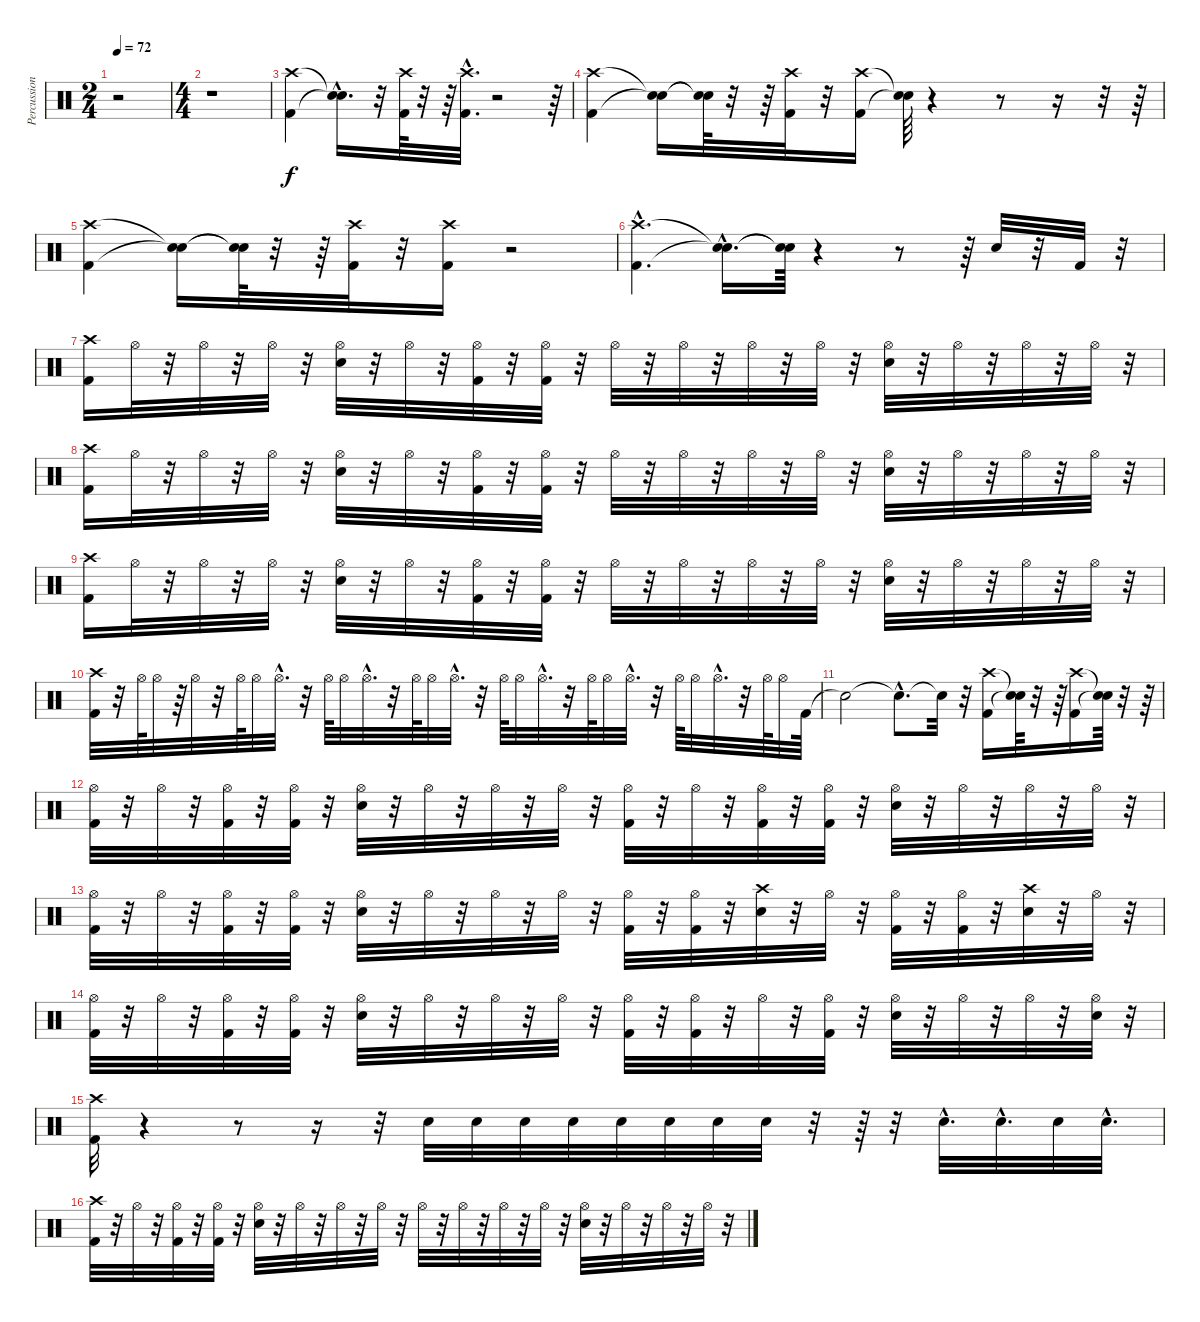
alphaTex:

\track ("Percussions" "Percussion") {instrument percussion}
\staff {score}
\articulation defaults
\ts (2 4)
\tempo 72
\clef neutral
\ks c
r.2{dy f} |
\ts (4 4)
r.1 |
("Crash high (hit)" "Kick (hit) 2").4 ("Snare (hit)"{hac t} "Snare (hit)"{hac t}).16{d} r.32 ("Crash high (hit)" "Kick (hit) 2").64 r.32 r.64 ("Crash high (hit)"{hac} "Kick (hit) 2"{hac}).32{d} r.2 r.64 |
("Crash high (hit)" "Kick (hit) 2").4 ("Snare (hit)"{t} "Snare (hit)"{t}).16 ("Snare (hit)"{t} "Snare (hit)"{t}).64 r.32 r.64 ("Crash high (hit)" "Kick (hit) 2").32 r.32 ("Crash high (hit)" "Kick (hit) 2").16 ("Snare (hit)"{t} "Snare (hit)"{t}).64 r.4 r.8 r.16 r.32 r.64 |
("Crash high (hit)" "Kick (hit) 2").4 ("Snare (hit)"{t} "Snare (hit)"{t}).16 ("Snare (hit)"{t} "Snare (hit)"{t}).64 r.32 r.64 ("Crash high (hit)" "Kick (hit) 2").32 r.32 ("Crash high (hit)" "Kick (hit) 2").16 r.2 |
("Crash high (hit)"{hac} "Kick (hit) 2"{hac}).4{d} ("Snare (hit)"{hac t} "Snare (hit)"{hac t}).16{d} ("Snare (hit)"{t} "Snare (hit)"{t}).64 r.4 r.8 r.64 "Snare (hit) 2".32 r.32 "Kick (hit) 2".32 r.32 |
("Crash high (hit)" "Kick (hit) 2").16 "Hi-Hat (open)".32 r.32 "Hi-Hat (open)".32 r.32 "Hi-Hat (open)".32 r.32 ("Hi-Hat (open)" "Snare (hit) 2").32 r.32 "Hi-Hat (open)".32 r.32 ("Hi-Hat (open)" "Kick (hit) 2").32 r.32 ("Hi-Hat (open)" "Kick (hit) 2").32 r.32 "Hi-Hat (open)".32 r.32 "Hi-Hat (open)".32 r.32 "Hi-Hat (open)".32 r.32 "Hi-Hat (open)".32 r.32 ("Hi-Hat (open)" "Snare (hit) 2").32 r.32 "Hi-Hat (open)".32 r.32 "Hi-Hat (open)".32 r.32 "Hi-Hat (open)".32 r.32 |
("Crash high (hit)" "Kick (hit) 2").16 "Hi-Hat (open)".32 r.32 "Hi-Hat (open)".32 r.32 "Hi-Hat (open)".32 r.32 ("Hi-Hat (open)" "Snare (hit) 2").32 r.32 "Hi-Hat (open)".32 r.32 ("Hi-Hat (open)" "Kick (hit) 2").32 r.32 ("Hi-Hat (open)" "Kick (hit) 2").32 r.32 "Hi-Hat (open)".32 r.32 "Hi-Hat (open)".32 r.32 "Hi-Hat (open)".32 r.32 "Hi-Hat (open)".32 r.32 ("Hi-Hat (open)" "Snare (hit) 2").32 r.32 "Hi-Hat (open)".32 r.32 "Hi-Hat (open)".32 r.32 "Hi-Hat (open)".32 r.32 |
("Crash high (hit)" "Kick (hit) 2").16 "Hi-Hat (open)".32 r.32 "Hi-Hat (open)".32 r.32 "Hi-Hat (open)".32 r.32 ("Hi-Hat (open)" "Snare (hit) 2").32 r.32 "Hi-Hat (open)".32 r.32 ("Hi-Hat (open)" "Kick (hit) 2").32 r.32 ("Hi-Hat (open)" "Kick (hit) 2").32 r.32 "Hi-Hat (open)".32 r.32 "Hi-Hat (open)".32 r.32 "Hi-Hat (open)".32 r.32 "Hi-Hat (open)".32 r.32 ("Hi-Hat (open)" "Snare (hit) 2").32 r.32 "Hi-Hat (open)".32 r.32 "Hi-Hat (open)".32 r.32 "Hi-Hat (open)".32 r.32 |
("Crash high (hit)" "Kick (hit) 2").32 r.32 "Hi-Hat (open)".64 "Hi-Hat (open)".32 r.64 "Hi-Hat (open)".32 r.32 "Hi-Hat (open)".64 "Hi-Hat (open)".32 "Hi-Hat (open)"{hac}.32{d} r.32 "Hi-Hat (open)".64 "Hi-Hat (open)".32 "Hi-Hat (open)"{hac}.32{d} r.32 "Hi-Hat (open)".64 "Hi-Hat (open)".32 "Hi-Hat (open)"{hac}.32{d} r.32 "Hi-Hat (open)".64 "Hi-Hat (open)".32 "Hi-Hat (open)"{hac}.32{d} r.32 "Hi-Hat (open)".64 "Hi-Hat (open)".32 "Hi-Hat (open)"{hac}.32{d} r.32 "Hi-Hat (open)".64 "Hi-Hat (open)".32 "Hi-Hat (open)"{hac}.32{d} r.32 "Hi-Hat (open)".64 "Hi-Hat (open)".32 "Kick (hit) 2".64 |
"Snare (hit)"{t}.2 "Snare (hit)"{hac t}.8{d} "Snare (hit)"{t}.32 r.32 ("Crash high (hit)" "Kick (hit) 2").16 ("Snare (hit)"{t} "Snare (hit)"{t}).64 r.32 r.64 ("Crash high (hit)" "Kick (hit) 2").16 ("Snare (hit)"{t} "Snare (hit)"{t}).64 r.32 r.64 |
("Hi-Hat (open)" "Kick (hit) 2").32 r.32 "Hi-Hat (open)".32 r.32 ("Hi-Hat (open)" "Kick (hit) 2").32 r.32 ("Hi-Hat (open)" "Kick (hit) 2").32 r.32 ("Hi-Hat (open)" "Snare (hit) 2").32 r.32 "Hi-Hat (open)".32 r.32 "Hi-Hat (open)".32 r.32 "Hi-Hat (open)".32 r.32 ("Hi-Hat (open)" "Kick (hit) 2").32 r.32 "Hi-Hat (open)".32 r.32 ("Hi-Hat (open)" "Kick (hit) 2").32 r.32 ("Hi-Hat (open)" "Kick (hit) 2").32 r.32 ("Hi-Hat (open)" "Snare (hit) 2").32 r.32 "Hi-Hat (open)".32 r.32 "Hi-Hat (open)".32 r.32 "Hi-Hat (open)".32 r.32 |
("Hi-Hat (open)" "Kick (hit) 2").32 r.32 "Hi-Hat (open)".32 r.32 ("Hi-Hat (open)" "Kick (hit) 2").32 r.32 ("Hi-Hat (open)" "Kick (hit) 2").32 r.32 ("Snare (hit) 2" "Hi-Hat (open)").32 r.32 "Hi-Hat (open)".32 r.32 "Hi-Hat (open)".32 r.32 "Hi-Hat (open)".32 r.32 ("Hi-Hat (open)" "Kick (hit) 2").32 r.32 ("Hi-Hat (open)" "Kick (hit) 2").32 r.32 ("Crash high (hit)" "Snare (hit) 2").32 r.32 "Hi-Hat (open)".32 r.32 ("Hi-Hat (open)" "Kick (hit) 2").32 r.32 ("Hi-Hat (open)" "Kick (hit) 2").32 r.32 ("Crash high (hit)" "Snare (hit) 2").32 r.32 "Hi-Hat (open)".32 r.32 |
("Hi-Hat (open)" "Kick (hit) 2").32 r.32 "Hi-Hat (open)".32 r.32 ("Hi-Hat (open)" "Kick (hit) 2").32 r.32 ("Hi-Hat (open)" "Kick (hit) 2").32 r.32 ("Snare (hit) 2" "Hi-Hat (open)").32 r.32 "Hi-Hat (open)".32 r.32 "Hi-Hat (open)".32 r.32 "Hi-Hat (open)".32 r.32 ("Hi-Hat (open)" "Kick (hit) 2").32 r.32 ("Hi-Hat (open)" "Kick (hit) 2").32 r.32 "Hi-Hat (open)".32 r.32 ("Hi-Hat (open)" "Kick (hit) 2").32 r.32 ("Hi-Hat (open)" "Snare (hit) 2").32 r.32 "Hi-Hat (open)".32 r.32 "Hi-Hat (open)".32 r.32 ("Hi-Hat (open)" "Snare (hit) 2").32 r.32 |
("Crash high (hit)" "Kick (hit) 2").32 r.4 r.8 r.16 r.32 "Snare (hit) 2".32 "Snare (hit) 2".32 "Snare (hit) 2".32 "Snare (hit) 2".32 "Snare (hit) 2".32 "Snare (hit) 2".32 "Snare (hit) 2".32 "Snare (hit) 2".32 r.32 r.64 r.32 "Snare (hit) 2"{hac}.32{d} "Snare (hit) 2"{hac}.32{d} "Snare (hit) 2".32 "Snare (hit) 2"{hac}.32{d} |
("Crash high (hit)" "Kick (hit) 2").32 r.32 "Hi-Hat (open)".32 r.32 ("Hi-Hat (open)" "Kick (hit) 2").32 r.32 ("Hi-Hat (open)" "Kick (hit) 2").32 r.32 ("Snare (hit) 2" "Hi-Hat (open)").32 r.32 "Hi-Hat (open)".32 r.32 "Hi-Hat (open)".32 r.32 "Hi-Hat (open)".32 r.32 "Hi-Hat (open)".32 r.32 "Hi-Hat (open)".32 r.32 "Hi-Hat (open)".32 r.32 "Hi-Hat (open)".32 r.32 ("Snare (hit) 2" "Hi-Hat (open)").32 r.32 "Hi-Hat (open)".32 r.32 "Hi-Hat (open)".32 r.32 "Hi-Hat (open)".32 r.32
